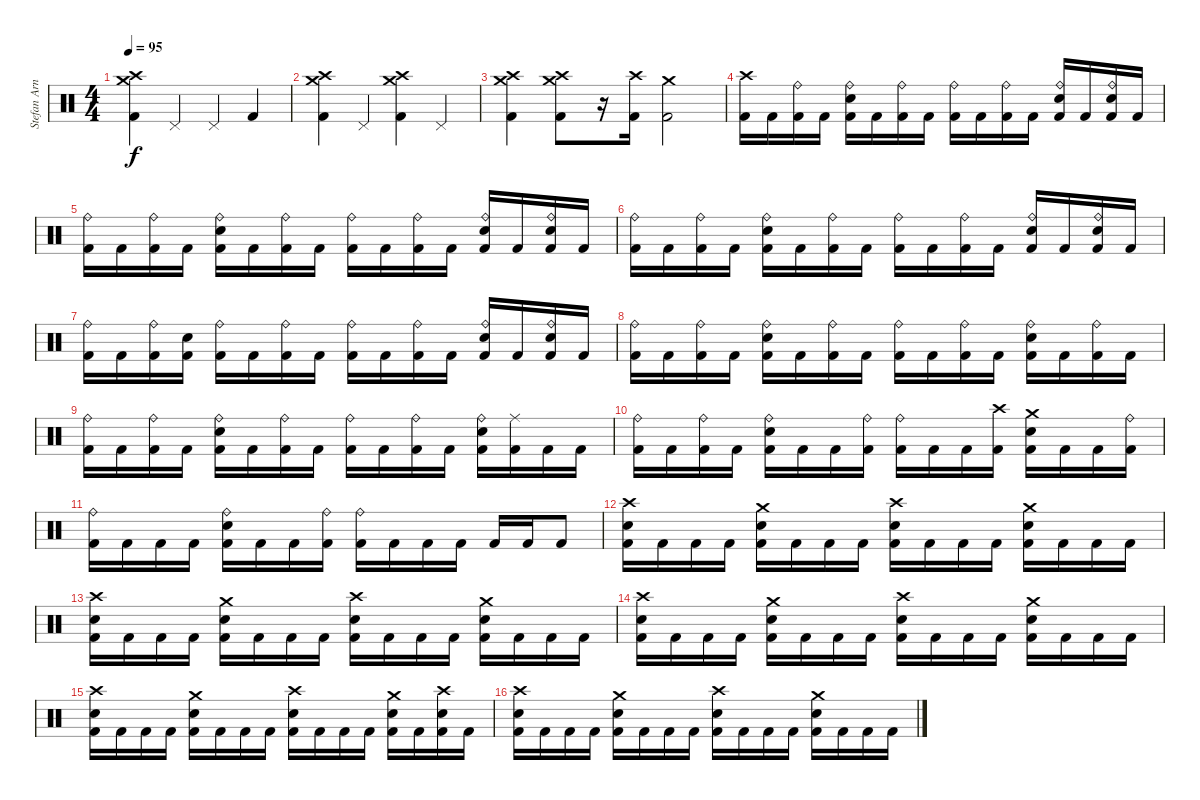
\track ("Stefan Arnold (Drums)" "Stefan Arn") {instrument percussion}
\staff {score}
\articulation defaults
\ts (4 4)
\tempo 95
\clef neutral
\ks c
("Crash high (hit)" "Crash medium (hit)" "Kick (hit) 2").4{dy f} "Pedal Hi-Hat (hit)".4 "Pedal Hi-Hat (hit)".4 "Kick (hit) 2".4 |
("Crash high (hit)" "Crash medium (hit)" "Kick (hit) 2").4 "Pedal Hi-Hat (hit)".4 ("Crash medium (hit)" "Crash high (hit)" "Kick (hit) 2").4 "Pedal Hi-Hat (hit)".4 |
("Crash high (hit)" "Crash medium (hit)" "Kick (hit) 2").4 ("Crash high (hit)" "Crash medium (hit)" "Kick (hit) 2").8 r.16 ("Crash high (hit)" "Kick (hit) 2").16 ("Crash medium (hit)" "Kick (hit) 2").2 |
("Crash high (hit)" "Kick (hit) 2").16 "Kick (hit) 2".16 ("Ride (bell)" "Kick (hit) 2").16 "Kick (hit) 2".16 ("Ride (bell)" "Snare (hit) 2" "Kick (hit) 2").16 "Kick (hit) 2".16 ("Ride (bell)" "Kick (hit) 2").16 "Kick (hit) 2".16 ("Ride (bell)" "Kick (hit) 2").16 "Kick (hit) 2".16 ("Ride (bell)" "Kick (hit) 2").16 "Kick (hit) 2".16 ("Ride (bell)" "Snare (hit) 2" "Kick (hit) 2").16 "Kick (hit) 2".16 ("Ride (bell)" "Snare (hit) 2" "Kick (hit) 2").16 "Kick (hit) 2".16 |
("Ride (bell)" "Kick (hit) 2").16 "Kick (hit) 2".16 ("Ride (bell)" "Kick (hit) 2").16 "Kick (hit) 2".16 ("Ride (bell)" "Snare (hit) 2" "Kick (hit) 2").16 "Kick (hit) 2".16 ("Ride (bell)" "Kick (hit) 2").16 "Kick (hit) 2".16 ("Ride (bell)" "Kick (hit) 2").16 "Kick (hit) 2".16 ("Ride (bell)" "Kick (hit) 2").16 "Kick (hit) 2".16 ("Ride (bell)" "Snare (hit) 2" "Kick (hit) 2").16 "Kick (hit) 2".16 ("Ride (bell)" "Snare (hit) 2" "Kick (hit) 2").16 "Kick (hit) 2".16 |
("Ride (bell)" "Kick (hit) 2").16 "Kick (hit) 2".16 ("Ride (bell)" "Kick (hit) 2").16 "Kick (hit) 2".16 ("Ride (bell)" "Snare (hit) 2" "Kick (hit) 2").16 "Kick (hit) 2".16 ("Ride (bell)" "Kick (hit) 2").16 "Kick (hit) 2".16 ("Ride (bell)" "Kick (hit) 2").16 "Kick (hit) 2".16 ("Ride (bell)" "Kick (hit) 2").16 "Kick (hit) 2".16 ("Ride (bell)" "Snare (hit) 2" "Kick (hit) 2").16 "Kick (hit) 2".16 ("Ride (bell)" "Snare (hit) 2" "Kick (hit) 2").16 "Kick (hit) 2".16 |
("Ride (bell)" "Kick (hit) 2").16 "Kick (hit) 2".16 ("Ride (bell)" "Kick (hit) 2").16 ("Snare (hit) 2" "Kick (hit) 2").16 ("Ride (bell)" "Kick (hit) 2").16 "Kick (hit) 2".16 ("Ride (bell)" "Kick (hit) 2").16 "Kick (hit) 2".16 ("Ride (bell)" "Kick (hit) 2").16 "Kick (hit) 2".16 ("Ride (bell)" "Kick (hit) 2").16 "Kick (hit) 2".16 ("Ride (bell)" "Snare (hit) 2" "Kick (hit) 2").16 "Kick (hit) 2".16 ("Ride (bell)" "Snare (hit) 2" "Kick (hit) 2").16 "Kick (hit) 2".16 |
("Ride (bell)" "Kick (hit) 2").16 "Kick (hit) 2".16 ("Ride (bell)" "Kick (hit) 2").16 "Kick (hit) 2".16 ("Ride (bell)" "Snare (hit) 2" "Kick (hit) 2").16 "Kick (hit) 2".16 ("Ride (bell)" "Kick (hit) 2").16 "Kick (hit) 2".16 ("Ride (bell)" "Kick (hit) 2").16 "Kick (hit) 2".16 ("Ride (bell)" "Kick (hit) 2").16 "Kick (hit) 2".16 ("Ride (bell)" "Snare (hit) 2" "Kick (hit) 2").16 "Kick (hit) 2".16 ("Ride (bell)" "Kick (hit) 2").16 "Kick (hit) 2".16 |
("Ride (bell)" "Kick (hit) 2").16 "Kick (hit) 2".16 ("Ride (bell)" "Kick (hit) 2").16 "Kick (hit) 2".16 ("Ride (bell)" "Snare (hit) 2" "Kick (hit) 2").16 "Kick (hit) 2".16 ("Ride (bell)" "Kick (hit) 2").16 "Kick (hit) 2".16 ("Ride (bell)" "Kick (hit) 2").16 "Kick (hit) 2".16 ("Ride (bell)" "Kick (hit) 2").16 "Kick (hit) 2".16 ("Ride (bell)" "Snare (hit) 2" "Kick (hit) 2").16 ("Ride (middle)" "Kick (hit) 2").16 "Kick (hit) 2".16 "Kick (hit) 2".16 |
("Ride (bell)" "Kick (hit) 2").16 "Kick (hit) 2".16 ("Ride (bell)" "Kick (hit) 2").16 "Kick (hit) 2".16 ("Ride (bell)" "Snare (hit) 2" "Kick (hit) 2").16 "Kick (hit) 2".16 "Kick (hit) 2".16 ("Ride (bell)" "Kick (hit) 2").16 ("Ride (bell)" "Kick (hit) 2").16 "Kick (hit) 2".16 "Kick (hit) 2".16 ("Crash high (hit)" "Kick (hit) 2").16 ("Crash medium (hit)" "Snare (hit) 2" "Kick (hit) 2").16 "Kick (hit) 2".16 "Kick (hit) 2".16 ("Ride (bell)" "Kick (hit) 2").16 |
("Ride (bell)" "Kick (hit) 2").16 "Kick (hit) 2".16 "Kick (hit) 2".16 "Kick (hit) 2".16 ("Ride (bell)" "Snare (hit) 2" "Kick (hit) 2").16 "Kick (hit) 2".16 "Kick (hit) 2".16 ("Ride (bell)" "Kick (hit) 2").16 ("Ride (bell)" "Kick (hit) 2").16 "Kick (hit) 2".16 "Kick (hit) 2".16 "Kick (hit) 2".16 "Kick (hit) 2".16 "Kick (hit) 2".16 "Kick (hit) 2".8 |
("Crash high (hit)" "Snare (hit) 2" "Kick (hit) 2").16 "Kick (hit) 2".16 "Kick (hit) 2".16 "Kick (hit) 2".16 ("Crash medium (hit)" "Snare (hit) 2" "Kick (hit) 2").16 "Kick (hit) 2".16 "Kick (hit) 2".16 "Kick (hit) 2".16 ("Crash high (hit)" "Snare (hit) 2" "Kick (hit) 2").16 "Kick (hit) 2".16 "Kick (hit) 2".16 "Kick (hit) 2".16 ("Crash medium (hit)" "Snare (hit) 2" "Kick (hit) 2").16 "Kick (hit) 2".16 "Kick (hit) 2".16 "Kick (hit) 2".16 |
("Crash high (hit)" "Snare (hit) 2" "Kick (hit) 2").16 "Kick (hit) 2".16 "Kick (hit) 2".16 "Kick (hit) 2".16 ("Crash medium (hit)" "Snare (hit) 2" "Kick (hit) 2").16 "Kick (hit) 2".16 "Kick (hit) 2".16 "Kick (hit) 2".16 ("Crash high (hit)" "Snare (hit) 2" "Kick (hit) 2").16 "Kick (hit) 2".16 "Kick (hit) 2".16 "Kick (hit) 2".16 ("Crash medium (hit)" "Snare (hit) 2" "Kick (hit) 2").16 "Kick (hit) 2".16 "Kick (hit) 2".16 "Kick (hit) 2".16 |
("Crash high (hit)" "Snare (hit) 2" "Kick (hit) 2").16 "Kick (hit) 2".16 "Kick (hit) 2".16 "Kick (hit) 2".16 ("Crash medium (hit)" "Snare (hit) 2" "Kick (hit) 2").16 "Kick (hit) 2".16 "Kick (hit) 2".16 "Kick (hit) 2".16 ("Crash high (hit)" "Snare (hit) 2" "Kick (hit) 2").16 "Kick (hit) 2".16 "Kick (hit) 2".16 "Kick (hit) 2".16 ("Crash medium (hit)" "Snare (hit) 2" "Kick (hit) 2").16 "Kick (hit) 2".16 "Kick (hit) 2".16 "Kick (hit) 2".16 |
("Crash high (hit)" "Snare (hit) 2" "Kick (hit) 2").16 "Kick (hit) 2".16 "Kick (hit) 2".16 "Kick (hit) 2".16 ("Crash medium (hit)" "Snare (hit) 2" "Kick (hit) 2").16 "Kick (hit) 2".16 "Kick (hit) 2".16 "Kick (hit) 2".16 ("Crash high (hit)" "Snare (hit) 2" "Kick (hit) 2").16 "Kick (hit) 2".16 "Kick (hit) 2".16 "Kick (hit) 2".16 ("Crash medium (hit)" "Snare (hit) 2" "Kick (hit) 2").16 "Kick (hit) 2".16 ("Crash high (hit)" "Snare (hit) 2" "Kick (hit) 2").16 "Kick (hit) 2".16 |
("Crash high (hit)" "Snare (hit) 2" "Kick (hit) 2").16 "Kick (hit) 2".16 "Kick (hit) 2".16 "Kick (hit) 2".16 ("Crash medium (hit)" "Snare (hit) 2" "Kick (hit) 2").16 "Kick (hit) 2".16 "Kick (hit) 2".16 "Kick (hit) 2".16 ("Crash high (hit)" "Snare (hit) 2" "Kick (hit) 2").16 "Kick (hit) 2".16 "Kick (hit) 2".16 "Kick (hit) 2".16 ("Crash medium (hit)" "Snare (hit) 2" "Kick (hit) 2").16 "Kick (hit) 2".16 "Kick (hit) 2".16 "Kick (hit) 2".16
